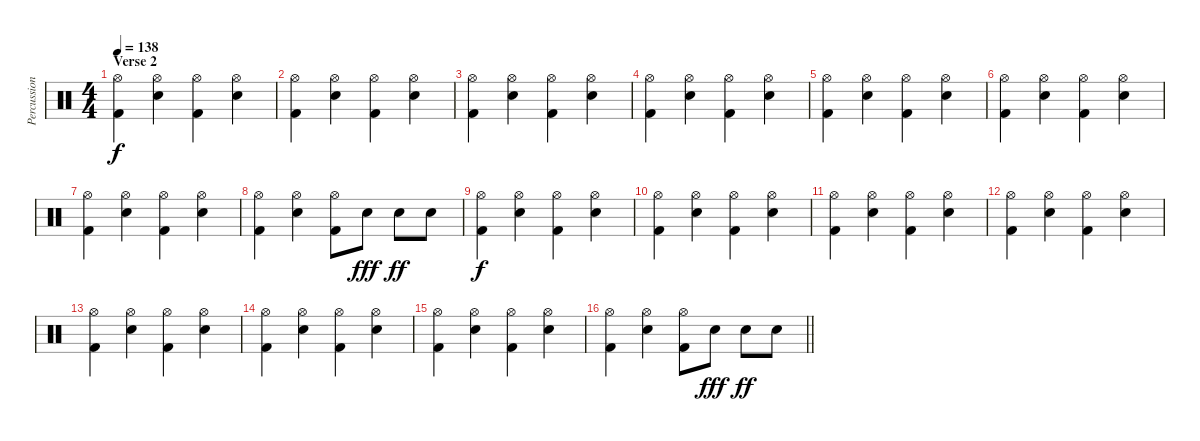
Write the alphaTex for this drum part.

\track ("Percussion" "Percussion") {instrument percussion}
\staff {score}
\articulation defaults
\ts (4 4)
\section ("" "Verse 2")
\tempo 138
\clef neutral
\ks c
("Hi-Hat (open)" "Kick (hit) 2").4{dy f} ("Snare (hit) 2" "Hi-Hat (open)").4 ("Hi-Hat (open)" "Kick (hit) 2").4 ("Snare (hit) 2" "Hi-Hat (open)").4 |
("Hi-Hat (open)" "Kick (hit) 2").4 ("Snare (hit) 2" "Hi-Hat (open)").4 ("Hi-Hat (open)" "Kick (hit) 2").4 ("Snare (hit) 2" "Hi-Hat (open)").4 |
("Hi-Hat (open)" "Kick (hit) 2").4 ("Snare (hit) 2" "Hi-Hat (open)").4 ("Hi-Hat (open)" "Kick (hit) 2").4 ("Snare (hit) 2" "Hi-Hat (open)").4 |
("Hi-Hat (open)" "Kick (hit) 2").4 ("Snare (hit) 2" "Hi-Hat (open)").4 ("Hi-Hat (open)" "Kick (hit) 2").4 ("Snare (hit) 2" "Hi-Hat (open)").4 |
("Hi-Hat (open)" "Kick (hit) 2").4 ("Snare (hit) 2" "Hi-Hat (open)").4 ("Hi-Hat (open)" "Kick (hit) 2").4 ("Snare (hit) 2" "Hi-Hat (open)").4 |
("Hi-Hat (open)" "Kick (hit) 2").4 ("Snare (hit) 2" "Hi-Hat (open)").4 ("Hi-Hat (open)" "Kick (hit) 2").4 ("Snare (hit) 2" "Hi-Hat (open)").4 |
("Hi-Hat (open)" "Kick (hit) 2").4 ("Snare (hit) 2" "Hi-Hat (open)").4 ("Hi-Hat (open)" "Kick (hit) 2").4 ("Snare (hit) 2" "Hi-Hat (open)").4 |
("Hi-Hat (open)" "Kick (hit) 2").4 ("Snare (hit) 2" "Hi-Hat (open)").4 ("Hi-Hat (open)" "Kick (hit) 2").8 "Snare (hit) 2".8{dy fff} "Snare (hit) 2".8{dy ff} "Snare (hit) 2".8 |
("Hi-Hat (open)" "Kick (hit) 2").4{dy f} ("Snare (hit) 2" "Hi-Hat (open)").4 ("Hi-Hat (open)" "Kick (hit) 2").4 ("Snare (hit) 2" "Hi-Hat (open)").4 |
("Hi-Hat (open)" "Kick (hit) 2").4 ("Snare (hit) 2" "Hi-Hat (open)").4 ("Hi-Hat (open)" "Kick (hit) 2").4 ("Snare (hit) 2" "Hi-Hat (open)").4 |
("Hi-Hat (open)" "Kick (hit) 2").4 ("Snare (hit) 2" "Hi-Hat (open)").4 ("Hi-Hat (open)" "Kick (hit) 2").4 ("Snare (hit) 2" "Hi-Hat (open)").4 |
("Hi-Hat (open)" "Kick (hit) 2").4 ("Snare (hit) 2" "Hi-Hat (open)").4 ("Hi-Hat (open)" "Kick (hit) 2").4 ("Snare (hit) 2" "Hi-Hat (open)").4 |
("Hi-Hat (open)" "Kick (hit) 2").4 ("Snare (hit) 2" "Hi-Hat (open)").4 ("Hi-Hat (open)" "Kick (hit) 2").4 ("Snare (hit) 2" "Hi-Hat (open)").4 |
("Hi-Hat (open)" "Kick (hit) 2").4 ("Snare (hit) 2" "Hi-Hat (open)").4 ("Hi-Hat (open)" "Kick (hit) 2").4 ("Snare (hit) 2" "Hi-Hat (open)").4 |
("Hi-Hat (open)" "Kick (hit) 2").4 ("Snare (hit) 2" "Hi-Hat (open)").4 ("Hi-Hat (open)" "Kick (hit) 2").4 ("Snare (hit) 2" "Hi-Hat (open)").4 |
\barLineRight lightlight
("Hi-Hat (open)" "Kick (hit) 2").4 ("Snare (hit) 2" "Hi-Hat (open)").4 ("Hi-Hat (open)" "Kick (hit) 2").8 "Snare (hit) 2".8{dy fff} "Snare (hit) 2".8{dy ff} "Snare (hit) 2".8
